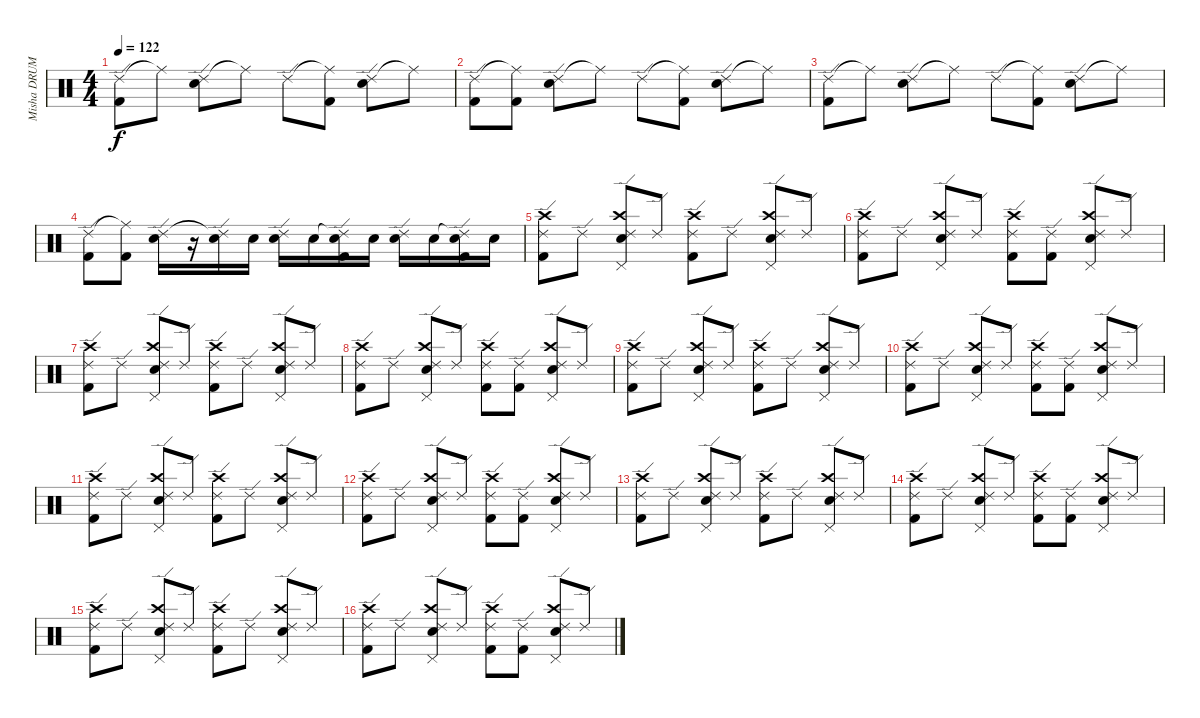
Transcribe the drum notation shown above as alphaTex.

\track ("Misha DRUMS" "Misha DRUM") {instrument percussion}
\staff {score}
\articulation defaults
\ts (4 4)
\tempo 122
\clef neutral
\ks c
("Ride (edge) 2" "Kick (hit) 2").8{dy f} "Ride (middle)"{t}.8 ("Ride (edge) 2" "Snare (hit) 2").8 "Ride (middle)"{t}.8 "Ride (edge) 2".8 ("Ride (middle)"{t} "Kick (hit) 2").8 ("Ride (edge) 2" "Snare (hit) 2").8 "Ride (middle)"{t}.8 |
("Ride (edge) 2" "Kick (hit) 2").8 ("Ride (middle)"{t} "Kick (hit) 2").8 ("Ride (edge) 2" "Snare (hit) 2").8 "Ride (middle)"{t}.8 "Ride (edge) 2".8 ("Ride (middle)"{t} "Kick (hit) 2").8 ("Ride (edge) 2" "Snare (hit) 2").8 "Ride (middle)"{t}.8 |
("Ride (edge) 2" "Kick (hit) 2").8 "Ride (middle)"{t}.8 ("Ride (edge) 2" "Snare (hit) 2").8 "Ride (middle)"{t}.8 "Ride (edge) 2".8 ("Ride (middle)"{t} "Kick (hit) 2").8 ("Ride (edge) 2" "Snare (hit) 2").8 "Ride (middle)"{t}.8 |
("Ride (edge) 2" "Kick (hit) 2").8 ("Ride (middle)"{t} "Kick (hit) 2").8 ("Ride (edge) 2" "Snare (hit) 2").16 r.16 ("Ride (edge) 2"{t} "Snare (hit) 2").16 "Snare (hit) 2".16 ("Ride (edge) 2" "Snare (hit) 2").16 "Snare (hit) 2".16 ("Ride (edge) 2"{t} "Snare (hit) 2" "Kick (hit) 2").16 "Snare (hit) 2".16 ("Ride (edge) 2" "Snare (hit) 2").16 "Snare (hit) 2".16 ("Ride (edge) 2"{t} "Snare (hit) 2" "Kick (hit) 2").16 "Snare (hit) 2".16 |
("Ride (edge) 2" "Crash high (hit)" "Kick (hit) 2").8 "Ride (edge) 2".8 ("Ride (edge) 2" "Crash high (hit)" "Pedal Hi-Hat (hit)" "Snare (hit) 2").8 "Ride (edge) 2".8 ("Ride (edge) 2" "Crash high (hit)" "Kick (hit) 2").8 "Ride (edge) 2".8 ("Ride (edge) 2" "Crash high (hit)" "Pedal Hi-Hat (hit)" "Snare (hit) 2").8 "Ride (edge) 2".8 |
("Ride (edge) 2" "Crash high (hit)" "Kick (hit) 2").8 "Ride (edge) 2".8 ("Ride (edge) 2" "Crash high (hit)" "Pedal Hi-Hat (hit)" "Snare (hit) 2").8 "Ride (edge) 2".8 ("Ride (edge) 2" "Crash high (hit)" "Kick (hit) 2").8 ("Ride (edge) 2" "Kick (hit) 2").8 ("Ride (edge) 2" "Crash high (hit)" "Pedal Hi-Hat (hit)" "Snare (hit) 2").8 "Ride (edge) 2".8 |
("Ride (edge) 2" "Crash high (hit)" "Kick (hit) 2").8 "Ride (edge) 2".8 ("Ride (edge) 2" "Crash high (hit)" "Pedal Hi-Hat (hit)" "Snare (hit) 2").8 "Ride (edge) 2".8 ("Ride (edge) 2" "Crash high (hit)" "Kick (hit) 2").8 "Ride (edge) 2".8 ("Ride (edge) 2" "Crash high (hit)" "Pedal Hi-Hat (hit)" "Snare (hit) 2").8 "Ride (edge) 2".8 |
("Ride (edge) 2" "Crash high (hit)" "Kick (hit) 2").8 "Ride (edge) 2".8 ("Ride (edge) 2" "Crash high (hit)" "Pedal Hi-Hat (hit)" "Snare (hit) 2").8 "Ride (edge) 2".8 ("Ride (edge) 2" "Crash high (hit)" "Kick (hit) 2").8 ("Ride (edge) 2" "Kick (hit) 2").8 ("Ride (edge) 2" "Crash high (hit)" "Pedal Hi-Hat (hit)" "Snare (hit) 2").8 "Ride (edge) 2".8 |
("Ride (edge) 2" "Crash high (hit)" "Kick (hit) 2").8 "Ride (edge) 2".8 ("Ride (edge) 2" "Crash high (hit)" "Pedal Hi-Hat (hit)" "Snare (hit) 2").8 "Ride (edge) 2".8 ("Ride (edge) 2" "Crash high (hit)" "Kick (hit) 2").8 "Ride (edge) 2".8 ("Ride (edge) 2" "Crash high (hit)" "Pedal Hi-Hat (hit)" "Snare (hit) 2").8 "Ride (edge) 2".8 |
("Ride (edge) 2" "Crash high (hit)" "Kick (hit) 2").8 "Ride (edge) 2".8 ("Ride (edge) 2" "Crash high (hit)" "Pedal Hi-Hat (hit)" "Snare (hit) 2").8 "Ride (edge) 2".8 ("Ride (edge) 2" "Crash high (hit)" "Kick (hit) 2").8 ("Ride (edge) 2" "Kick (hit) 2").8 ("Ride (edge) 2" "Crash high (hit)" "Pedal Hi-Hat (hit)" "Snare (hit) 2").8 "Ride (edge) 2".8 |
("Ride (edge) 2" "Crash high (hit)" "Kick (hit) 2").8 "Ride (edge) 2".8 ("Ride (edge) 2" "Crash high (hit)" "Pedal Hi-Hat (hit)" "Snare (hit) 2").8 "Ride (edge) 2".8 ("Ride (edge) 2" "Crash high (hit)" "Kick (hit) 2").8 "Ride (edge) 2".8 ("Ride (edge) 2" "Crash high (hit)" "Pedal Hi-Hat (hit)" "Snare (hit) 2").8 "Ride (edge) 2".8 |
("Ride (edge) 2" "Crash high (hit)" "Kick (hit) 2").8 "Ride (edge) 2".8 ("Ride (edge) 2" "Crash high (hit)" "Pedal Hi-Hat (hit)" "Snare (hit) 2").8 "Ride (edge) 2".8 ("Ride (edge) 2" "Crash high (hit)" "Kick (hit) 2").8 ("Ride (edge) 2" "Kick (hit) 2").8 ("Ride (edge) 2" "Crash high (hit)" "Pedal Hi-Hat (hit)" "Snare (hit) 2").8 "Ride (edge) 2".8 |
("Ride (edge) 2" "Crash high (hit)" "Kick (hit) 2").8 "Ride (edge) 2".8 ("Ride (edge) 2" "Crash high (hit)" "Pedal Hi-Hat (hit)" "Snare (hit) 2").8 "Ride (edge) 2".8 ("Ride (edge) 2" "Crash high (hit)" "Kick (hit) 2").8 "Ride (edge) 2".8 ("Ride (edge) 2" "Crash high (hit)" "Pedal Hi-Hat (hit)" "Snare (hit) 2").8 "Ride (edge) 2".8 |
("Ride (edge) 2" "Crash high (hit)" "Kick (hit) 2").8 "Ride (edge) 2".8 ("Ride (edge) 2" "Crash high (hit)" "Pedal Hi-Hat (hit)" "Snare (hit) 2").8 "Ride (edge) 2".8 ("Ride (edge) 2" "Crash high (hit)" "Kick (hit) 2").8 ("Ride (edge) 2" "Kick (hit) 2").8 ("Ride (edge) 2" "Crash high (hit)" "Pedal Hi-Hat (hit)" "Snare (hit) 2").8 "Ride (edge) 2".8 |
("Ride (edge) 2" "Crash high (hit)" "Kick (hit) 2").8 "Ride (edge) 2".8 ("Ride (edge) 2" "Crash high (hit)" "Pedal Hi-Hat (hit)" "Snare (hit) 2").8 "Ride (edge) 2".8 ("Ride (edge) 2" "Crash high (hit)" "Kick (hit) 2").8 "Ride (edge) 2".8 ("Ride (edge) 2" "Crash high (hit)" "Pedal Hi-Hat (hit)" "Snare (hit) 2").8 "Ride (edge) 2".8 |
("Ride (edge) 2" "Crash high (hit)" "Kick (hit) 2").8 "Ride (edge) 2".8 ("Ride (edge) 2" "Crash high (hit)" "Pedal Hi-Hat (hit)" "Snare (hit) 2").8 "Ride (edge) 2".8 ("Ride (edge) 2" "Crash high (hit)" "Kick (hit) 2").8 ("Ride (edge) 2" "Kick (hit) 2").8 ("Ride (edge) 2" "Crash high (hit)" "Pedal Hi-Hat (hit)" "Snare (hit) 2").8 "Ride (edge) 2".8
